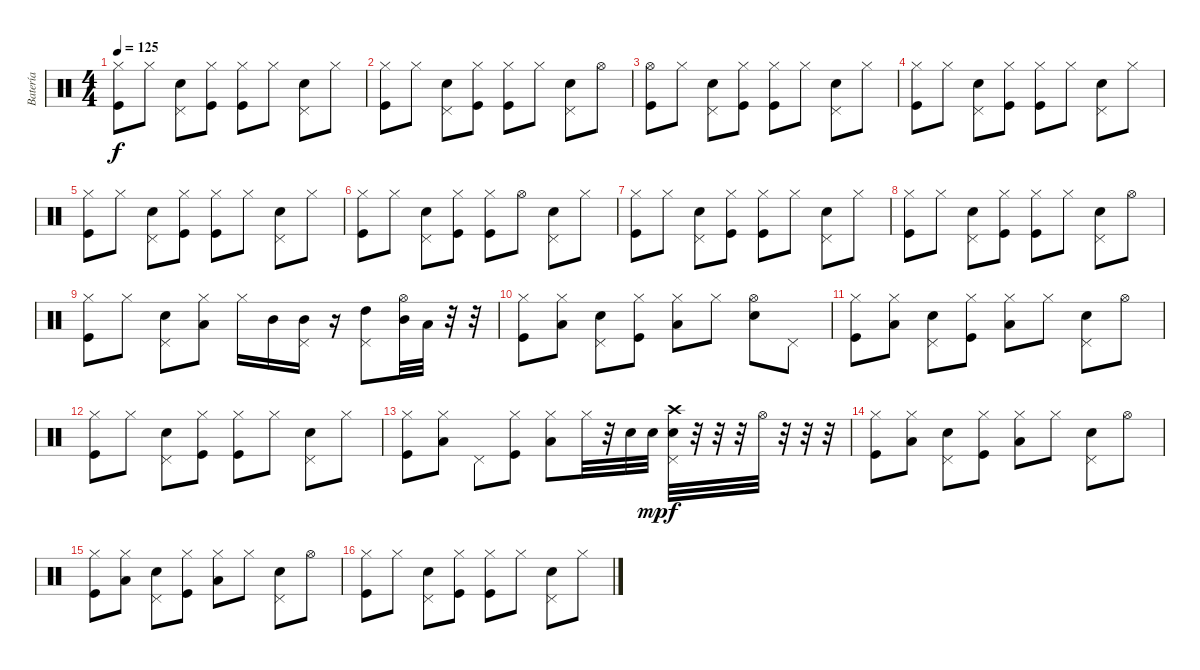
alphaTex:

\track ("Batería" "Batería") {instrument percussion}
\staff {score}
\articulation defaults
\ts (4 4)
\tempo 125
\clef neutral
\ks c
("Hi-Hat (closed)" "Kick (hit)").8{dy f} "Hi-Hat (closed)".8 ("Pedal Hi-Hat (hit)" "Snare (hit) 2").8 ("Hi-Hat (closed)" "Kick (hit)").8 ("Hi-Hat (closed)" "Kick (hit)").8 "Hi-Hat (closed)".8 ("Pedal Hi-Hat (hit)" "Snare (hit) 2").8 "Hi-Hat (closed)".8 |
("Hi-Hat (closed)" "Kick (hit)").8 "Hi-Hat (closed)".8 ("Pedal Hi-Hat (hit)" "Snare (hit) 2").8 ("Hi-Hat (closed)" "Kick (hit)").8 ("Hi-Hat (closed)" "Kick (hit)").8 "Hi-Hat (closed)".8 ("Pedal Hi-Hat (hit)" "Snare (hit) 2").8 "Hi-Hat (open)".8 |
("Hi-Hat (open)" "Kick (hit)").8 "Hi-Hat (closed)".8 ("Pedal Hi-Hat (hit)" "Snare (hit) 2").8 ("Hi-Hat (closed)" "Kick (hit)").8 ("Hi-Hat (closed)" "Kick (hit)").8 "Hi-Hat (closed)".8 ("Pedal Hi-Hat (hit)" "Snare (hit) 2").8 "Hi-Hat (closed)".8 |
("Hi-Hat (closed)" "Kick (hit)").8 "Hi-Hat (closed)".8 ("Pedal Hi-Hat (hit)" "Snare (hit) 2").8 ("Hi-Hat (closed)" "Kick (hit)").8 ("Hi-Hat (closed)" "Kick (hit)").8 "Hi-Hat (closed)".8 ("Pedal Hi-Hat (hit)" "Snare (hit) 2").8 "Hi-Hat (closed)".8 |
("Hi-Hat (closed)" "Kick (hit)").8 "Hi-Hat (closed)".8 ("Pedal Hi-Hat (hit)" "Snare (hit) 2").8 ("Hi-Hat (closed)" "Kick (hit)").8 ("Hi-Hat (closed)" "Kick (hit)").8 "Hi-Hat (closed)".8 ("Pedal Hi-Hat (hit)" "Snare (hit) 2").8 "Hi-Hat (closed)".8 |
("Hi-Hat (closed)" "Kick (hit)").8 "Hi-Hat (closed)".8 ("Pedal Hi-Hat (hit)" "Snare (hit) 2").8 ("Hi-Hat (closed)" "Kick (hit)").8 ("Hi-Hat (closed)" "Kick (hit)").8 "Hi-Hat (open)".8 ("Pedal Hi-Hat (hit)" "Snare (hit) 2").8 "Hi-Hat (closed)".8 |
("Hi-Hat (closed)" "Kick (hit)").8 "Hi-Hat (closed)".8 ("Pedal Hi-Hat (hit)" "Snare (hit) 2").8 ("Hi-Hat (closed)" "Kick (hit)").8 ("Hi-Hat (closed)" "Kick (hit)").8 "Hi-Hat (closed)".8 ("Pedal Hi-Hat (hit)" "Snare (hit) 2").8 "Hi-Hat (closed)".8 |
("Hi-Hat (closed)" "Kick (hit)").8 "Hi-Hat (closed)".8 ("Pedal Hi-Hat (hit)" "Snare (hit) 2").8 ("Hi-Hat (closed)" "Kick (hit)").8 ("Hi-Hat (closed)" "Kick (hit)").8 "Hi-Hat (closed)".8 ("Pedal Hi-Hat (hit)" "Snare (hit) 2").8 "Hi-Hat (open)".8 |
("Hi-Hat (closed)" "Kick (hit)").8 "Hi-Hat (closed)".8 ("Pedal Hi-Hat (hit)" "Snare (hit) 2").8 ("Hi-Hat (closed)" "Low Tom (hit)").8 "Hi-Hat (closed)".16 "Mid Tom (hit)".16 ("Pedal Hi-Hat (hit)" "Mid Tom (hit)").16 r.16 ("Pedal Hi-Hat (hit)" "High Tom (hit)").8 ("Hi-Hat (open)" "Mid Tom (hit)").32 "Low Tom (hit)".32 r.32 r.32 |
("Hi-Hat (closed)" "Kick (hit)").8 ("Hi-Hat (closed)" "Low Tom (hit)").8 ("Pedal Hi-Hat (hit)" "Snare (hit) 2").8 ("Hi-Hat (closed)" "Kick (hit)").8 ("Hi-Hat (closed)" "Low Tom (hit)").8 "Hi-Hat (closed)".8 ("Hi-Hat (open)" "Snare (hit) 2").8 "Pedal Hi-Hat (hit)".8 |
("Hi-Hat (closed)" "Kick (hit)").8 ("Hi-Hat (closed)" "Low Tom (hit)").8 ("Pedal Hi-Hat (hit)" "Snare (hit) 2").8 ("Hi-Hat (closed)" "Kick (hit)").8 ("Hi-Hat (closed)" "Low Tom (hit)").8 "Hi-Hat (closed)".8 ("Pedal Hi-Hat (hit)" "Snare (hit) 2").8 "Hi-Hat (open)".8 |
("Hi-Hat (closed)" "Kick (hit)").8 "Hi-Hat (closed)".8 ("Pedal Hi-Hat (hit)" "Snare (hit) 2").8 ("Hi-Hat (closed)" "Kick (hit)").8 ("Hi-Hat (closed)" "Kick (hit)").8 "Hi-Hat (closed)".8 ("Pedal Hi-Hat (hit)" "Snare (hit) 2").8 "Hi-Hat (closed)".8 |
("Hi-Hat (closed)" "Kick (hit)").8 ("Hi-Hat (closed)" "Low Tom (hit)").8 "Pedal Hi-Hat (hit)".8 ("Hi-Hat (closed)" "Kick (hit)").8 ("Hi-Hat (closed)" "Low Tom (hit)").8 "Hi-Hat (closed)".32 r.32 "Snare (hit) 2".32 "Snare (hit) 2"{tr (38 16)}.32{dy mp} ("Crash high (hit)" "Pedal Hi-Hat (hit)" "Snare (hit) 2").32{dy f} r.32 r.32 r.32 "Hi-Hat (open)".32 r.32 r.32 r.32 |
("Hi-Hat (closed)" "Kick (hit)").8 ("Hi-Hat (closed)" "Low Tom (hit)").8 ("Pedal Hi-Hat (hit)" "Snare (hit) 2").8 ("Hi-Hat (closed)" "Kick (hit)").8 ("Hi-Hat (closed)" "Low Tom (hit)").8 "Hi-Hat (closed)".8 ("Pedal Hi-Hat (hit)" "Snare (hit) 2").8 "Hi-Hat (open)".8 |
("Hi-Hat (closed)" "Kick (hit)").8 ("Hi-Hat (closed)" "Low Tom (hit)").8 ("Pedal Hi-Hat (hit)" "Snare (hit) 2").8 ("Hi-Hat (closed)" "Kick (hit)").8 ("Hi-Hat (closed)" "Low Tom (hit)").8 "Hi-Hat (closed)".8 ("Pedal Hi-Hat (hit)" "Snare (hit) 2").8 "Hi-Hat (open)".8 |
("Hi-Hat (closed)" "Kick (hit)").8 "Hi-Hat (closed)".8 ("Pedal Hi-Hat (hit)" "Snare (hit) 2").8 ("Hi-Hat (closed)" "Kick (hit)").8 ("Hi-Hat (closed)" "Kick (hit)").8 "Hi-Hat (closed)".8 ("Pedal Hi-Hat (hit)" "Snare (hit) 2").8 "Hi-Hat (closed)".8
